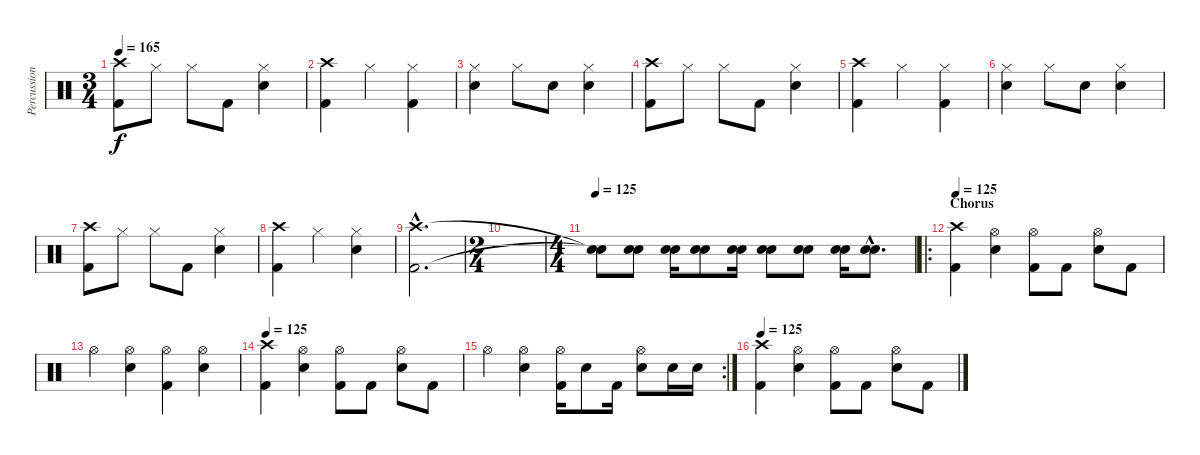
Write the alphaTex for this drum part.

\track ("Percussion" "Percussion") {instrument percussion}
\staff {score}
\articulation defaults
\ts (3 4)
\tempo 165
\clef neutral
\ks c
("Crash high (hit)" "Kick (hit) 2").8{dy f} "Hi-Hat (closed)".8 "Hi-Hat (closed)".8 "Kick (hit) 2".8 ("Hi-Hat (closed)" "Electric Snare (hit)").4 |
("Crash high (hit)" "Kick (hit) 2").4 "Hi-Hat (closed)".4 ("Hi-Hat (closed)" "Kick (hit) 2").4 |
("Hi-Hat (closed)" "Electric Snare (hit)").4 "Hi-Hat (closed)".8 "Electric Snare (hit)".8 ("Hi-Hat (closed)" "Electric Snare (hit)").4 |
("Crash high (hit)" "Kick (hit) 2").8 "Hi-Hat (closed)".8 "Hi-Hat (closed)".8 "Kick (hit) 2".8 ("Hi-Hat (closed)" "Electric Snare (hit)").4 |
("Crash high (hit)" "Kick (hit) 2").4 "Hi-Hat (closed)".4 ("Hi-Hat (closed)" "Kick (hit) 2").4 |
("Hi-Hat (closed)" "Electric Snare (hit)").4 "Hi-Hat (closed)".8 "Electric Snare (hit)".8 ("Hi-Hat (closed)" "Electric Snare (hit)").4 |
("Crash high (hit)" "Kick (hit) 2").8 "Hi-Hat (closed)".8 "Hi-Hat (closed)".8 "Kick (hit) 2".8 ("Hi-Hat (closed)" "Electric Snare (hit)").4 |
("Crash high (hit)" "Kick (hit) 2").4 "Hi-Hat (closed)".4 ("Hi-Hat (closed)" "Electric Snare (hit)").4 |
("Crash high (hit)"{hac} "Kick (hit) 2"{hac}).2{d} |
\ts (2 4)
|
\ts (4 4)
\tempo 125
("Snare (hit)"{t} "Snare (hit)"{t}).8 ("Electric Snare (hit)" "Electric Snare (hit)").8 ("Electric Snare (hit)" "Electric Snare (hit)").16 ("Electric Snare (hit)" "Electric Snare (hit)").8 ("Electric Snare (hit)" "Electric Snare (hit)").16 ("Electric Snare (hit)" "Electric Snare (hit)").8 ("Electric Snare (hit)" "Electric Snare (hit)").8 ("Electric Snare (hit)" "Electric Snare (hit)").16 ("Electric Snare (hit)"{hac} "Electric Snare (hit)"{hac}).8{d} |
\ro
\section ("" "Chorus")
\tempo 125
("Crash high (hit)" "Kick (hit) 2").4 ("Hi-Hat (open)" "Electric Snare (hit)").4 ("Hi-Hat (open)" "Kick (hit) 2").8 "Kick (hit) 2".8 ("Hi-Hat (open)" "Electric Snare (hit)").8 "Kick (hit) 2".8 |
"Hi-Hat (open)".4 ("Hi-Hat (open)" "Electric Snare (hit)").4 ("Hi-Hat (open)" "Kick (hit) 2").4 ("Hi-Hat (open)" "Electric Snare (hit)").4 |
\tempo 125
("Crash high (hit)" "Kick (hit) 2").4 ("Hi-Hat (open)" "Electric Snare (hit)").4 ("Hi-Hat (open)" "Kick (hit) 2").8 "Kick (hit) 2".8 ("Hi-Hat (open)" "Electric Snare (hit)").8 "Kick (hit) 2".8 |
\rc 2 "Hi-Hat (open)".4
("Hi-Hat (open)" "Electric Snare (hit)").4 ("Hi-Hat (open)" "Kick (hit) 2").16 "Electric Snare (hit)".8 "Kick (hit) 2".16 ("Hi-Hat (open)" "Electric Snare (hit)").8 "Electric Snare (hit)".16 "Electric Snare (hit)".16 |
\tempo 125
("Crash high (hit)" "Kick (hit) 2").4 ("Hi-Hat (open)" "Electric Snare (hit)").4 ("Hi-Hat (open)" "Kick (hit) 2").8 "Kick (hit) 2".8 ("Hi-Hat (open)" "Electric Snare (hit)").8 "Kick (hit) 2".8
